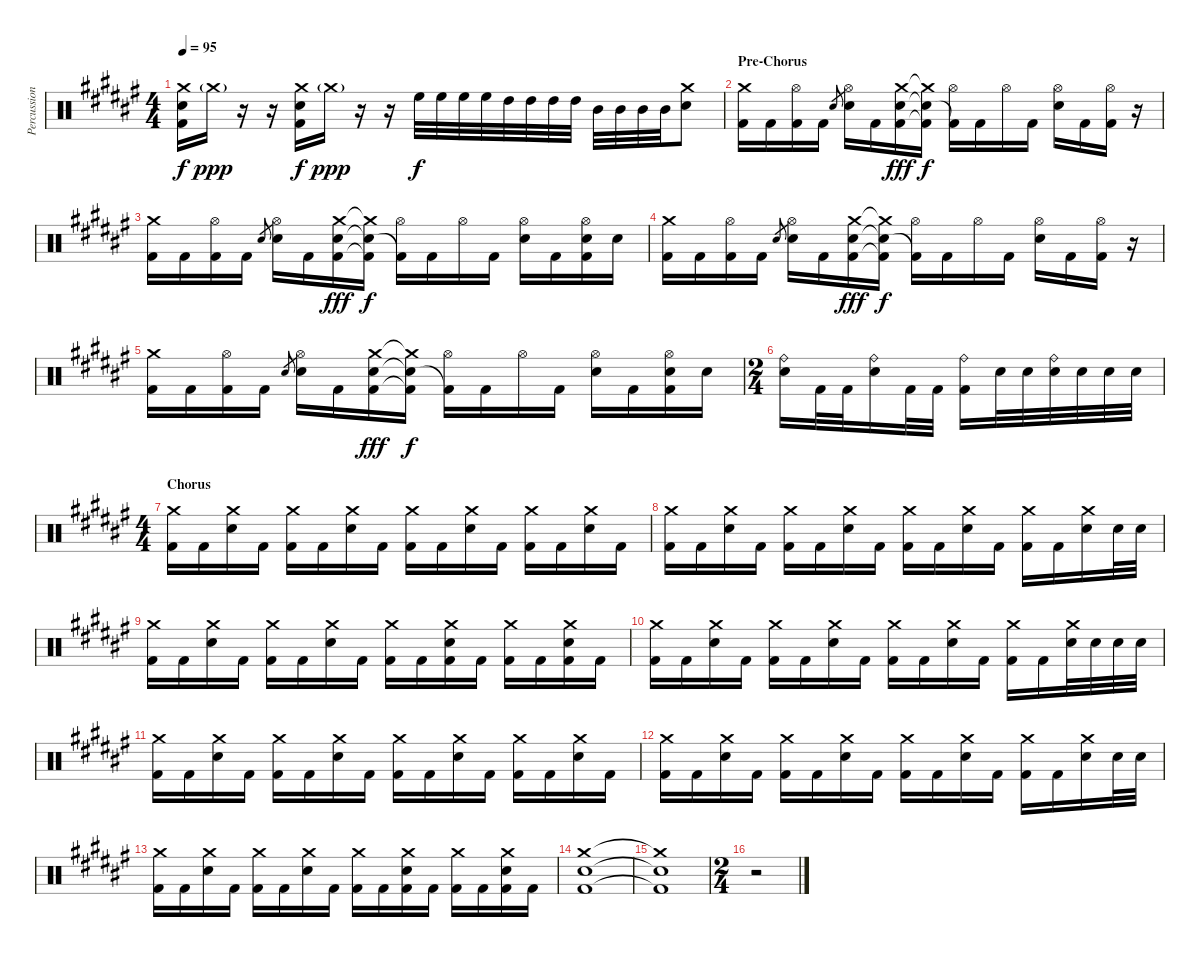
\track ("Percussions" "Percussion") {instrument percussion}
\staff {score}
\articulation defaults
\ts (4 4)
\tempo 95
\clef neutral
\ks d#minor
("Crash medium (hit)" "Electric Snare (hit)" "Kick (hit) 2").16{dy f} "Crash medium (hit)"{g}.16{dy ppp} r.16 r.16 ("Crash medium (hit)" "Electric Snare (hit)" "Kick (hit) 2").16{dy f} "Crash medium (hit)"{g}.16{dy ppp} r.16 r.16 "High Floor Tom (hit)".32{dy f} "High Floor Tom (hit)".32 "High Floor Tom (hit)".32 "High Floor Tom (hit)".32 "High Tom (hit)".32 "High Tom (hit)".32 "High Tom (hit)".32 "High Tom (hit)".32 "Mid Tom (hit)".32 "Mid Tom (hit)".32 "Mid Tom (hit)".32 "Mid Tom (hit)".32 ("Crash medium (hit)" "Electric Snare (hit)").8 |
\section ("" "Pre-Chorus")
("Crash medium (hit)" "Kick (hit) 2").16 "Kick (hit) 2".16 ("Hi-Hat (open)" "Kick (hit) 2").16 "Kick (hit) 2".16 "Electric Snare (hit)".8{gr} ("Hi-Hat (open)" "Electric Snare (hit)").16 "Kick (hit) 2".16 ("Crash medium (hit)" "Electric Snare (hit)" "Kick (hit) 2").16{dy fff} ("Crash medium (hit)"{t} "Electric Snare (hit)"{t} "Kick (hit) 2"{t}).16{dy f} ("Hi-Hat (open)" "Kick (hit) 2"{t}).16 "Kick (hit) 2".16 "Hi-Hat (open)".16 "Kick (hit) 2".16 ("Hi-Hat (open)" "Electric Snare (hit)").16 "Kick (hit) 2".16 ("Hi-Hat (open)" "Kick (hit) 2").16 r.16 |
("Crash medium (hit)" "Kick (hit) 2").16 "Kick (hit) 2".16 ("Hi-Hat (open)" "Kick (hit) 2").16 "Kick (hit) 2".16 "Electric Snare (hit)".8{gr} ("Hi-Hat (open)" "Electric Snare (hit)").16 "Kick (hit) 2".16 ("Crash medium (hit)" "Electric Snare (hit)" "Kick (hit) 2").16{dy fff} ("Crash medium (hit)"{t} "Electric Snare (hit)"{t} "Kick (hit) 2"{t}).16{dy f} ("Hi-Hat (open)" "Kick (hit) 2"{t}).16 "Kick (hit) 2".16 "Hi-Hat (open)".16 "Kick (hit) 2".16 ("Hi-Hat (open)" "Electric Snare (hit)").16 "Kick (hit) 2".16 ("Hi-Hat (open)" "Electric Snare (hit)" "Kick (hit) 2").16 "Electric Snare (hit)".16 |
("Crash medium (hit)" "Kick (hit) 2").16 "Kick (hit) 2".16 ("Hi-Hat (open)" "Kick (hit) 2").16 "Kick (hit) 2".16 "Electric Snare (hit)".8{gr} ("Hi-Hat (open)" "Electric Snare (hit)").16 "Kick (hit) 2".16 ("Crash medium (hit)" "Electric Snare (hit)" "Kick (hit) 2").16{dy fff} ("Crash medium (hit)"{t} "Electric Snare (hit)"{t} "Kick (hit) 2"{t}).16{dy f} ("Hi-Hat (open)" "Kick (hit) 2"{t}).16 "Kick (hit) 2".16 "Hi-Hat (open)".16 "Kick (hit) 2".16 ("Hi-Hat (open)" "Electric Snare (hit)").16 "Kick (hit) 2".16 ("Hi-Hat (open)" "Kick (hit) 2").16 r.16 |
("Crash medium (hit)" "Kick (hit) 2").16 "Kick (hit) 2".16 ("Hi-Hat (open)" "Kick (hit) 2").16 "Kick (hit) 2".16 "Electric Snare (hit)".8{gr} ("Hi-Hat (open)" "Electric Snare (hit)").16 "Kick (hit) 2".16 ("Crash medium (hit)" "Electric Snare (hit)" "Kick (hit) 2").16{dy fff} ("Crash medium (hit)"{t} "Electric Snare (hit)"{t} "Kick (hit) 2"{t}).16{dy f} ("Hi-Hat (open)" "Kick (hit) 2"{t}).16 "Kick (hit) 2".16 "Hi-Hat (open)".16 "Kick (hit) 2".16 ("Hi-Hat (open)" "Electric Snare (hit)").16 "Kick (hit) 2".16 ("Hi-Hat (open)" "Electric Snare (hit)" "Kick (hit) 2").16 "Electric Snare (hit)".16 |
\ts (2 4)
("Ride (bell)" "Electric Snare (hit)").16 "Kick (hit) 2".32 "Kick (hit) 2".32 ("Ride (bell)" "Electric Snare (hit)").16 "Kick (hit) 2".32 "Kick (hit) 2".32 ("Ride (bell)" "Kick (hit) 2").16 "Electric Snare (hit)".32 "Electric Snare (hit)".32 ("Ride (bell)" "Electric Snare (hit)").32 "Electric Snare (hit)".32 "Electric Snare (hit)".32 "Electric Snare (hit)".32 |
\ts (4 4)
\section ("" "Chorus")
("Crash medium (hit)" "Kick (hit) 2").16 "Kick (hit) 2".16 ("Crash medium (hit)" "Electric Snare (hit)").16 "Kick (hit) 2".16 ("Crash medium (hit)" "Kick (hit) 2").16 "Kick (hit) 2".16 ("Crash medium (hit)" "Electric Snare (hit)").16 "Kick (hit) 2".16 ("Crash medium (hit)" "Kick (hit) 2").16 "Kick (hit) 2".16 ("Crash medium (hit)" "Electric Snare (hit)").16 "Kick (hit) 2".16 ("Crash medium (hit)" "Kick (hit) 2").16 "Kick (hit) 2".16 ("Crash medium (hit)" "Electric Snare (hit)").16 "Kick (hit) 2".16 |
("Crash medium (hit)" "Kick (hit) 2").16 "Kick (hit) 2".16 ("Crash medium (hit)" "Electric Snare (hit)").16 "Kick (hit) 2".16 ("Crash medium (hit)" "Kick (hit) 2").16 "Kick (hit) 2".16 ("Crash medium (hit)" "Electric Snare (hit)").16 "Kick (hit) 2".16 ("Crash medium (hit)" "Kick (hit) 2").16 "Kick (hit) 2".16 ("Crash medium (hit)" "Electric Snare (hit)").16 "Kick (hit) 2".16 ("Crash medium (hit)" "Kick (hit) 2").16 "Kick (hit) 2".16 ("Crash medium (hit)" "Electric Snare (hit)").16 "Electric Snare (hit)".32 "Electric Snare (hit)".32 |
("Crash medium (hit)" "Kick (hit) 2").16 "Kick (hit) 2".16 ("Crash medium (hit)" "Electric Snare (hit)").16 "Kick (hit) 2".16 ("Crash medium (hit)" "Kick (hit) 2").16 "Kick (hit) 2".16 ("Crash medium (hit)" "Electric Snare (hit)").16 "Kick (hit) 2".16 ("Crash medium (hit)" "Kick (hit) 2").16 "Kick (hit) 2".16 ("Crash medium (hit)" "Electric Snare (hit)" "Kick (hit) 2").16 "Kick (hit) 2".16 ("Crash medium (hit)" "Kick (hit) 2").16 "Kick (hit) 2".16 ("Crash medium (hit)" "Electric Snare (hit)" "Kick (hit) 2").16 "Kick (hit) 2".16 |
("Crash medium (hit)" "Kick (hit) 2").16 "Kick (hit) 2".16 ("Crash medium (hit)" "Electric Snare (hit)").16 "Kick (hit) 2".16 ("Crash medium (hit)" "Kick (hit) 2").16 "Kick (hit) 2".16 ("Crash medium (hit)" "Electric Snare (hit)").16 "Kick (hit) 2".16 ("Crash medium (hit)" "Kick (hit) 2").16 "Kick (hit) 2".16 ("Crash medium (hit)" "Electric Snare (hit)").16 "Kick (hit) 2".16 ("Crash medium (hit)" "Kick (hit) 2").16 "Kick (hit) 2".16 ("Crash medium (hit)" "Electric Snare (hit)").32 "Electric Snare (hit)".32 "Electric Snare (hit)".32 "Electric Snare (hit)".32 |
("Crash medium (hit)" "Kick (hit) 2").16 "Kick (hit) 2".16 ("Crash medium (hit)" "Electric Snare (hit)").16 "Kick (hit) 2".16 ("Crash medium (hit)" "Kick (hit) 2").16 "Kick (hit) 2".16 ("Crash medium (hit)" "Electric Snare (hit)").16 "Kick (hit) 2".16 ("Crash medium (hit)" "Kick (hit) 2").16 "Kick (hit) 2".16 ("Crash medium (hit)" "Electric Snare (hit)").16 "Kick (hit) 2".16 ("Crash medium (hit)" "Kick (hit) 2").16 "Kick (hit) 2".16 ("Crash medium (hit)" "Electric Snare (hit)").16 "Kick (hit) 2".16 |
("Crash medium (hit)" "Kick (hit) 2").16 "Kick (hit) 2".16 ("Crash medium (hit)" "Electric Snare (hit)").16 "Kick (hit) 2".16 ("Crash medium (hit)" "Kick (hit) 2").16 "Kick (hit) 2".16 ("Crash medium (hit)" "Electric Snare (hit)").16 "Kick (hit) 2".16 ("Crash medium (hit)" "Kick (hit) 2").16 "Kick (hit) 2".16 ("Crash medium (hit)" "Electric Snare (hit)").16 "Kick (hit) 2".16 ("Crash medium (hit)" "Kick (hit) 2").16 "Kick (hit) 2".16 ("Crash medium (hit)" "Electric Snare (hit)").16 "Electric Snare (hit)".32 "Electric Snare (hit)".32 |
("Crash medium (hit)" "Kick (hit) 2").16 "Kick (hit) 2".16 ("Crash medium (hit)" "Electric Snare (hit)").16 "Kick (hit) 2".16 ("Crash medium (hit)" "Kick (hit) 2").16 "Kick (hit) 2".16 ("Crash medium (hit)" "Electric Snare (hit)").16 "Kick (hit) 2".16 ("Crash medium (hit)" "Kick (hit) 2").16 "Kick (hit) 2".16 ("Crash medium (hit)" "Electric Snare (hit)" "Kick (hit) 2").16 "Kick (hit) 2".16 ("Crash medium (hit)" "Kick (hit) 2").16 "Kick (hit) 2".16 ("Crash medium (hit)" "Electric Snare (hit)" "Kick (hit) 2").16 "Kick (hit) 2".16 |
("Crash medium (hit)" "Electric Snare (hit)" "Kick (hit) 2").1 |
("Crash medium (hit)"{t} "Electric Snare (hit)"{t} "Kick (hit) 2"{t}).1 |
\ts (2 4)
r.2
